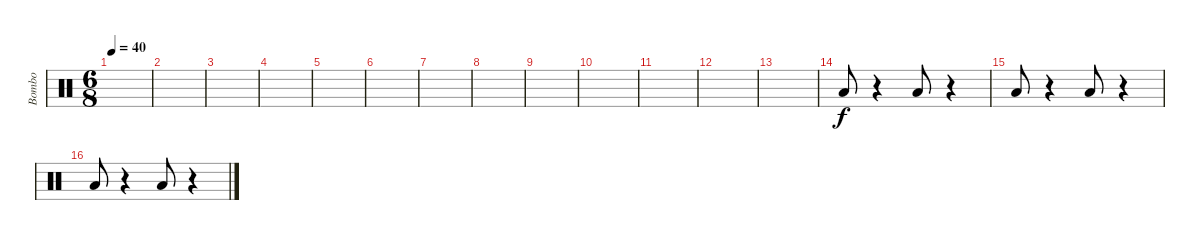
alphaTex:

\track ("Bombo" "Bombo") {instrument percussion}
\staff {score}
\articulation defaults
\ts (6 8)
\tempo 40
\clef neutral
\ks c
|
|
|
|
|
|
|
|
|
|
|
|
|
"Low Floor Tom (hit)".8{dy f} r.4 "Low Floor Tom (hit)".8 r.4 |
"Low Floor Tom (hit)".8 r.4 "Low Floor Tom (hit)".8 r.4 |
"Low Floor Tom (hit)".8 r.4 "Low Floor Tom (hit)".8 r.4
